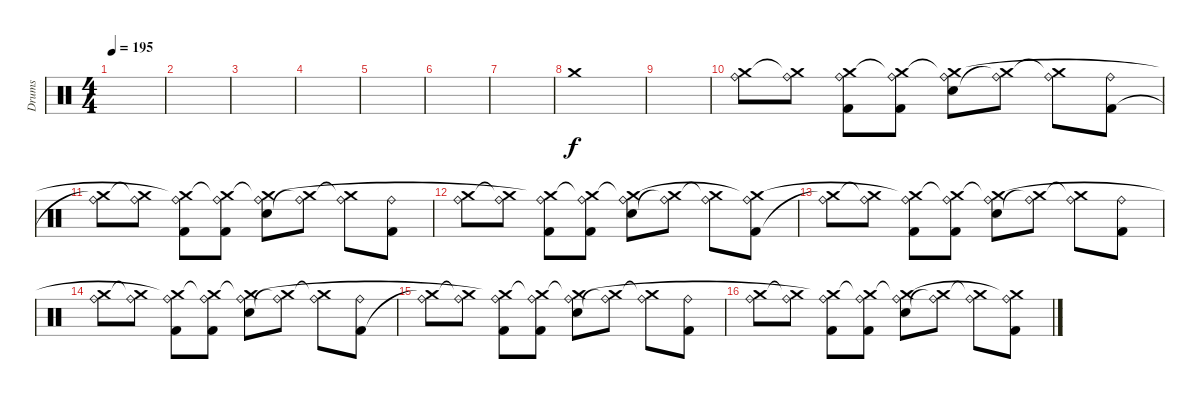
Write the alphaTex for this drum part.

\track ("Drums" "Drums") {instrument percussion}
\staff {score}
\articulation defaults
\ts (4 4)
\tempo 195
\clef neutral
\ks c
|
|
|
|
|
|
|
"Crash medium (hit)".1{volume 15} |
|
("Ride (bell)" "Crash medium (hit)").8{volume 15} ("Ride (bell)" "Crash medium (hit)"{t}).8 ("Ride (bell)" "Kick (hit) 2" "Crash medium (hit)").8 ("Ride (bell)" "Kick (hit) 2" "Crash medium (hit)"{t}).8 ("Ride (bell)" "Snare (hit) 2" "Crash medium (hit)"{t}).8 ("Ride (bell)" "Crash medium (hit)"{t}).8 ("Ride (bell)" "Crash medium (hit)"{t}).8 ("Ride (bell)" "Kick (hit) 2").8 |
("Ride (bell)" "Crash medium (hit)"{t}).8 ("Ride (bell)" "Crash medium (hit)"{t}).8 ("Ride (bell)" "Kick (hit) 2" "Crash medium (hit)"{t}).8 ("Ride (bell)" "Kick (hit) 2" "Crash medium (hit)"{t}).8 ("Ride (bell)" "Snare (hit) 2" "Crash medium (hit)"{t}).8 ("Ride (bell)" "Crash medium (hit)"{t}).8 ("Ride (bell)" "Crash medium (hit)"{t}).8 ("Ride (bell)" "Kick (hit) 2").8 |
("Ride (bell)" "Crash medium (hit)").8 ("Ride (bell)" "Crash medium (hit)"{t}).8 ("Ride (bell)" "Kick (hit) 2" "Crash medium (hit)"{t}).8 ("Ride (bell)" "Kick (hit) 2" "Crash medium (hit)"{t}).8 ("Ride (bell)" "Snare (hit) 2" "Crash medium (hit)"{t}).8 ("Ride (bell)" "Crash medium (hit)"{t}).8 ("Ride (bell)" "Crash medium (hit)"{t}).8 ("Ride (bell)" "Kick (hit) 2" "Crash medium (hit)"{t}).8 |
("Ride (bell)" "Crash medium (hit)"{t}).8 ("Ride (bell)" "Crash medium (hit)"{t}).8 ("Ride (bell)" "Kick (hit) 2" "Crash medium (hit)"{t}).8 ("Ride (bell)" "Kick (hit) 2" "Crash medium (hit)"{t}).8 ("Ride (bell)" "Snare (hit) 2" "Crash medium (hit)"{t}).8 ("Ride (bell)" "Crash medium (hit)"{t}).8 ("Ride (bell)" "Crash medium (hit)"{t}).8 ("Ride (bell)" "Kick (hit) 2").8 |
("Ride (bell)" "Crash medium (hit)").8 ("Ride (bell)" "Crash medium (hit)"{t}).8 ("Ride (bell)" "Kick (hit) 2" "Crash medium (hit)"{t}).8 ("Ride (bell)" "Kick (hit) 2" "Crash medium (hit)"{t}).8 ("Ride (bell)" "Snare (hit) 2" "Crash medium (hit)"{t}).8 ("Ride (bell)" "Crash medium (hit)"{t}).8 ("Ride (bell)" "Crash medium (hit)"{t}).8 ("Ride (bell)" "Kick (hit) 2").8 |
("Ride (bell)" "Crash medium (hit)"{t}).8 ("Ride (bell)" "Crash medium (hit)"{t}).8 ("Ride (bell)" "Kick (hit) 2" "Crash medium (hit)"{t}).8 ("Ride (bell)" "Kick (hit) 2" "Crash medium (hit)"{t}).8 ("Ride (bell)" "Snare (hit) 2" "Crash medium (hit)"{t}).8 ("Ride (bell)" "Crash medium (hit)"{t}).8 ("Ride (bell)" "Crash medium (hit)"{t}).8 ("Ride (bell)" "Kick (hit) 2").8 |
("Ride (bell)" "Crash medium (hit)").8 ("Ride (bell)" "Crash medium (hit)"{t}).8 ("Ride (bell)" "Kick (hit) 2" "Crash medium (hit)"{t}).8 ("Ride (bell)" "Kick (hit) 2" "Crash medium (hit)"{t}).8 ("Ride (bell)" "Snare (hit) 2" "Crash medium (hit)"{t}).8 ("Ride (bell)" "Crash medium (hit)"{t}).8 ("Ride (bell)" "Crash medium (hit)"{t}).8 ("Ride (bell)" "Kick (hit) 2" "Crash medium (hit)"{t}).8
